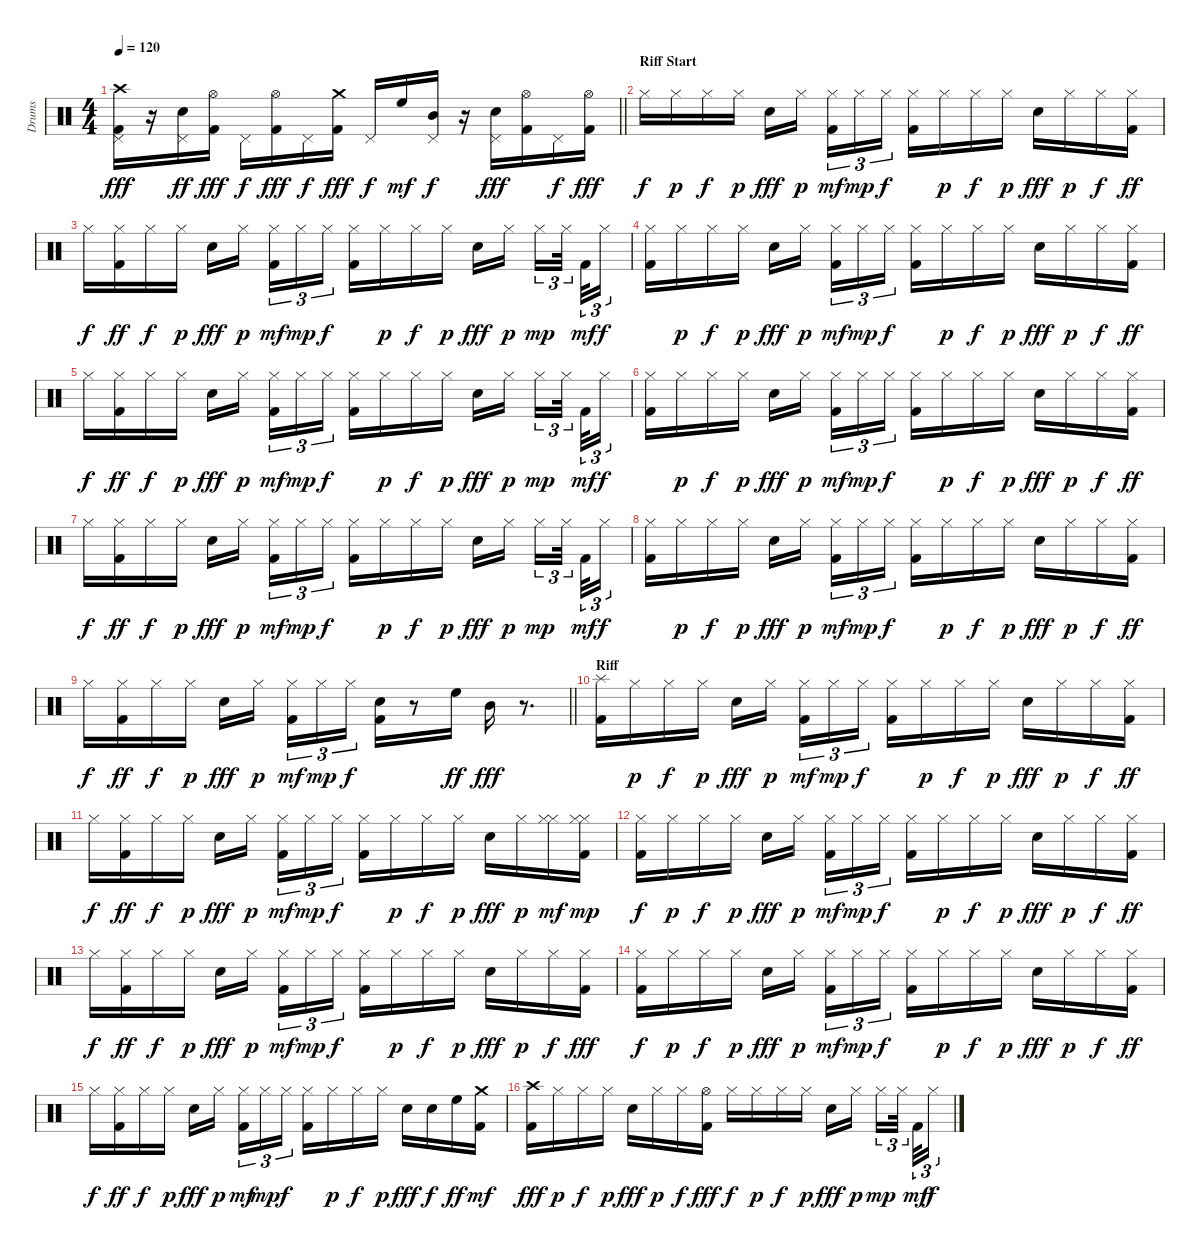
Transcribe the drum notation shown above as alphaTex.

\track ("Drums" "Drums") {instrument percussion}
\staff {score}
\articulation defaults
\ts (4 4)
\tempo 120
\clef neutral
\barLineRight lightlight
\ks c
("Crash high (hit)" "Kick (hit) 2" "Pedal Hi-Hat (hit)").16{dy fff} r.16 ("Snare (hit) 2" "Pedal Hi-Hat (hit)").16{dy ff} ("Kick (hit) 2" "Hi-Hat (open)").16{dy fff} "Pedal Hi-Hat (hit)".16{dy f} ("Kick (hit) 2" "Hi-Hat (open)").16{dy fff} "Pedal Hi-Hat (hit)".16{dy f} ("Kick (hit) 2" "Crash medium (hit)").16{dy fff} "Pedal Hi-Hat (hit)".16{dy f} "High Floor Tom (hit)".16{dy mf} ("Pedal Hi-Hat (hit)" "Mid Tom (hit)").16{dy f} r.16 ("Pedal Hi-Hat (hit)" "Snare (hit) 2").16{dy fff} ("Kick (hit) 2" "Hi-Hat (open)").16 "Pedal Hi-Hat (hit)".16{dy f} ("Kick (hit) 2" "Hi-Hat (open)").16{dy fff} |
\section ("" "Riff Start")
"Hi-Hat (closed)".16{dy f} "Hi-Hat (closed)".16{dy p} "Hi-Hat (closed)".16{dy f} "Hi-Hat (closed)".16{dy p} "Snare (hit) 2".16{dy fff} "Hi-Hat (closed)".16{dy p beam splitsecondary} ("Hi-Hat (closed)" "Kick (hit) 2").16{tu (3 2) dy mf} "Hi-Hat (closed)".16{tu (3 2) dy mp} "Hi-Hat (closed)".16{tu (3 2) dy f} ("Hi-Hat (closed)" "Kick (hit) 2").16 "Hi-Hat (closed)".16{dy p} "Hi-Hat (closed)".16{dy f} "Hi-Hat (closed)".16{dy p} "Snare (hit) 2".16{dy fff} "Hi-Hat (closed)".16{dy p} "Hi-Hat (closed)".16{dy f} ("Hi-Hat (closed)" "Kick (hit) 2").16{dy ff} |
"Hi-Hat (closed)".16{dy f} ("Hi-Hat (closed)" "Kick (hit) 2").16{dy ff} "Hi-Hat (closed)".16{dy f} "Hi-Hat (closed)".16{dy p} "Snare (hit) 2".16{dy fff} "Hi-Hat (closed)".16{dy p beam splitsecondary} ("Hi-Hat (closed)" "Kick (hit) 2").16{tu (3 2) dy mf} "Hi-Hat (closed)".16{tu (3 2) dy mp} "Hi-Hat (closed)".16{tu (3 2) dy f} ("Hi-Hat (closed)" "Kick (hit) 2").16 "Hi-Hat (closed)".16{dy p} "Hi-Hat (closed)".16{dy f} "Hi-Hat (closed)".16{dy p} "Snare (hit) 2".16{dy fff} "Hi-Hat (closed)".16{dy p beam splitsecondary} "Hi-Hat (closed)".16{tu (3 2) dy mp} "Hi-Hat (closed)".32{tu (3 2) beam splitsecondary} "Kick (hit) 2".32{tu (3 2) dy mf} "Hi-Hat (closed)".16{tu (3 2) dy f} |
("Hi-Hat (closed)" "Kick (hit) 2").16 "Hi-Hat (closed)".16{dy p} "Hi-Hat (closed)".16{dy f} "Hi-Hat (closed)".16{dy p} "Snare (hit) 2".16{dy fff} "Hi-Hat (closed)".16{dy p beam splitsecondary} ("Hi-Hat (closed)" "Kick (hit) 2").16{tu (3 2) dy mf} "Hi-Hat (closed)".16{tu (3 2) dy mp} "Hi-Hat (closed)".16{tu (3 2) dy f} ("Hi-Hat (closed)" "Kick (hit) 2").16 "Hi-Hat (closed)".16{dy p} "Hi-Hat (closed)".16{dy f} "Hi-Hat (closed)".16{dy p} "Snare (hit) 2".16{dy fff} "Hi-Hat (closed)".16{dy p} "Hi-Hat (closed)".16{dy f} ("Hi-Hat (closed)" "Kick (hit) 2").16{dy ff} |
"Hi-Hat (closed)".16{dy f} ("Hi-Hat (closed)" "Kick (hit) 2").16{dy ff} "Hi-Hat (closed)".16{dy f} "Hi-Hat (closed)".16{dy p} "Snare (hit) 2".16{dy fff} "Hi-Hat (closed)".16{dy p beam splitsecondary} ("Hi-Hat (closed)" "Kick (hit) 2").16{tu (3 2) dy mf} "Hi-Hat (closed)".16{tu (3 2) dy mp} "Hi-Hat (closed)".16{tu (3 2) dy f} ("Hi-Hat (closed)" "Kick (hit) 2").16 "Hi-Hat (closed)".16{dy p} "Hi-Hat (closed)".16{dy f} "Hi-Hat (closed)".16{dy p} "Snare (hit) 2".16{dy fff} "Hi-Hat (closed)".16{dy p beam splitsecondary} "Hi-Hat (closed)".16{tu (3 2) dy mp} "Hi-Hat (closed)".32{tu (3 2) beam splitsecondary} "Kick (hit) 2".32{tu (3 2) dy mf} "Hi-Hat (closed)".16{tu (3 2) dy f} |
("Hi-Hat (closed)" "Kick (hit) 2").16 "Hi-Hat (closed)".16{dy p} "Hi-Hat (closed)".16{dy f} "Hi-Hat (closed)".16{dy p} "Snare (hit) 2".16{dy fff} "Hi-Hat (closed)".16{dy p beam splitsecondary} ("Hi-Hat (closed)" "Kick (hit) 2").16{tu (3 2) dy mf} "Hi-Hat (closed)".16{tu (3 2) dy mp} "Hi-Hat (closed)".16{tu (3 2) dy f} ("Hi-Hat (closed)" "Kick (hit) 2").16 "Hi-Hat (closed)".16{dy p} "Hi-Hat (closed)".16{dy f} "Hi-Hat (closed)".16{dy p} "Snare (hit) 2".16{dy fff} "Hi-Hat (closed)".16{dy p} "Hi-Hat (closed)".16{dy f} ("Hi-Hat (closed)" "Kick (hit) 2").16{dy ff} |
"Hi-Hat (closed)".16{dy f} ("Hi-Hat (closed)" "Kick (hit) 2").16{dy ff} "Hi-Hat (closed)".16{dy f} "Hi-Hat (closed)".16{dy p} "Snare (hit) 2".16{dy fff} "Hi-Hat (closed)".16{dy p beam splitsecondary} ("Hi-Hat (closed)" "Kick (hit) 2").16{tu (3 2) dy mf} "Hi-Hat (closed)".16{tu (3 2) dy mp} "Hi-Hat (closed)".16{tu (3 2) dy f} ("Hi-Hat (closed)" "Kick (hit) 2").16 "Hi-Hat (closed)".16{dy p} "Hi-Hat (closed)".16{dy f} "Hi-Hat (closed)".16{dy p} "Snare (hit) 2".16{dy fff} "Hi-Hat (closed)".16{dy p beam splitsecondary} "Hi-Hat (closed)".16{tu (3 2) dy mp} "Hi-Hat (closed)".32{tu (3 2) beam splitsecondary} "Kick (hit) 2".32{tu (3 2) dy mf} "Hi-Hat (closed)".16{tu (3 2) dy f} |
("Hi-Hat (closed)" "Kick (hit) 2").16 "Hi-Hat (closed)".16{dy p} "Hi-Hat (closed)".16{dy f} "Hi-Hat (closed)".16{dy p} "Snare (hit) 2".16{dy fff} "Hi-Hat (closed)".16{dy p beam splitsecondary} ("Hi-Hat (closed)" "Kick (hit) 2").16{tu (3 2) dy mf} "Hi-Hat (closed)".16{tu (3 2) dy mp} "Hi-Hat (closed)".16{tu (3 2) dy f} ("Hi-Hat (closed)" "Kick (hit) 2").16 "Hi-Hat (closed)".16{dy p} "Hi-Hat (closed)".16{dy f} "Hi-Hat (closed)".16{dy p} "Snare (hit) 2".16{dy fff} "Hi-Hat (closed)".16{dy p} "Hi-Hat (closed)".16{dy f} ("Hi-Hat (closed)" "Kick (hit) 2").16{dy ff} |
\barLineRight lightlight "Hi-Hat (closed)".16{dy f}
("Hi-Hat (closed)" "Kick (hit) 2").16{dy ff} "Hi-Hat (closed)".16{dy f} "Hi-Hat (closed)".16{dy p} "Snare (hit) 2".16{dy fff} "Hi-Hat (closed)".16{dy p beam splitsecondary} ("Hi-Hat (closed)" "Kick (hit) 2").16{tu (3 2) dy mf} "Hi-Hat (closed)".16{tu (3 2) dy mp} "Hi-Hat (closed)".16{tu (3 2) dy f} ("Snare (hit) 2" "Kick (hit) 2").16 r.8 "High Floor Tom (hit)".16{dy ff} "Mid Tom (hit)".16{dy fff} r.8{d} |
\section ("" "Riff")
("Kick (hit) 2" "Splash (hit)").16 "Hi-Hat (closed)".16{dy p} "Hi-Hat (closed)".16{dy f} "Hi-Hat (closed)".16{dy p} "Snare (hit) 2".16{dy fff} "Hi-Hat (closed)".16{dy p beam splitsecondary} ("Hi-Hat (closed)" "Kick (hit) 2").16{tu (3 2) dy mf} "Hi-Hat (closed)".16{tu (3 2) dy mp} "Hi-Hat (closed)".16{tu (3 2) dy f} ("Hi-Hat (closed)" "Kick (hit) 2").16 "Hi-Hat (closed)".16{dy p} "Hi-Hat (closed)".16{dy f} "Hi-Hat (closed)".16{dy p} "Snare (hit) 2".16{dy fff} "Hi-Hat (closed)".16{dy p} "Hi-Hat (closed)".16{dy f} ("Hi-Hat (closed)" "Kick (hit) 2").16{dy ff} |
"Hi-Hat (closed)".16{dy f} ("Hi-Hat (closed)" "Kick (hit) 2").16{dy ff} "Hi-Hat (closed)".16{dy f} "Hi-Hat (closed)".16{dy p} "Snare (hit) 2".16{dy fff} "Hi-Hat (closed)".16{dy p beam splitsecondary} ("Hi-Hat (closed)" "Kick (hit) 2").16{tu (3 2) dy mf} "Hi-Hat (closed)".16{tu (3 2) dy mp} "Hi-Hat (closed)".16{tu (3 2) dy f} ("Hi-Hat (closed)" "Kick (hit) 2").16 "Hi-Hat (closed)".16{dy p} "Hi-Hat (closed)".16{dy f} "Hi-Hat (closed)".16{dy p} "Snare (hit) 2".16{dy fff} "Hi-Hat (closed)".16{dy p} ("Hi-Hat (closed)" "Hi-Hat (closed)").16{dy mf} ("Kick (hit) 2" "Hi-Hat (closed)" "Hi-Hat (closed)").16{dy mp} |
("Hi-Hat (closed)" "Kick (hit) 2").16{dy f} "Hi-Hat (closed)".16{dy p} "Hi-Hat (closed)".16{dy f} "Hi-Hat (closed)".16{dy p} "Snare (hit) 2".16{dy fff} "Hi-Hat (closed)".16{dy p beam splitsecondary} ("Hi-Hat (closed)" "Kick (hit) 2").16{tu (3 2) dy mf} "Hi-Hat (closed)".16{tu (3 2) dy mp} "Hi-Hat (closed)".16{tu (3 2) dy f} ("Hi-Hat (closed)" "Kick (hit) 2").16 "Hi-Hat (closed)".16{dy p} "Hi-Hat (closed)".16{dy f} "Hi-Hat (closed)".16{dy p} "Snare (hit) 2".16{dy fff} "Hi-Hat (closed)".16{dy p} "Hi-Hat (closed)".16{dy f} ("Hi-Hat (closed)" "Kick (hit) 2").16{dy ff} |
"Hi-Hat (closed)".16{dy f} ("Hi-Hat (closed)" "Kick (hit) 2").16{dy ff} "Hi-Hat (closed)".16{dy f} "Hi-Hat (closed)".16{dy p} "Snare (hit) 2".16{dy fff} "Hi-Hat (closed)".16{dy p beam splitsecondary} ("Hi-Hat (closed)" "Kick (hit) 2").16{tu (3 2) dy mf} "Hi-Hat (closed)".16{tu (3 2) dy mp} "Hi-Hat (closed)".16{tu (3 2) dy f} ("Hi-Hat (closed)" "Kick (hit) 2").16 "Hi-Hat (closed)".16{dy p} "Hi-Hat (closed)".16{dy f} "Hi-Hat (closed)".16{dy p} "Snare (hit) 2".16{dy fff} "Hi-Hat (closed)".16{dy p} "Hi-Hat (closed)".16{dy f} ("Kick (hit) 2" "Hi-Hat (closed)").16{dy fff} |
("Hi-Hat (closed)" "Kick (hit) 2").16{dy f} "Hi-Hat (closed)".16{dy p} "Hi-Hat (closed)".16{dy f} "Hi-Hat (closed)".16{dy p} "Snare (hit) 2".16{dy fff} "Hi-Hat (closed)".16{dy p beam splitsecondary} ("Hi-Hat (closed)" "Kick (hit) 2").16{tu (3 2) dy mf} "Hi-Hat (closed)".16{tu (3 2) dy mp} "Hi-Hat (closed)".16{tu (3 2) dy f} ("Hi-Hat (closed)" "Kick (hit) 2").16 "Hi-Hat (closed)".16{dy p} "Hi-Hat (closed)".16{dy f} "Hi-Hat (closed)".16{dy p} "Snare (hit) 2".16{dy fff} "Hi-Hat (closed)".16{dy p} "Hi-Hat (closed)".16{dy f} ("Hi-Hat (closed)" "Kick (hit) 2").16{dy ff} |
"Hi-Hat (closed)".16{dy f} ("Hi-Hat (closed)" "Kick (hit) 2").16{dy ff} "Hi-Hat (closed)".16{dy f} "Hi-Hat (closed)".16{dy p} "Snare (hit) 2".16{dy fff} "Hi-Hat (closed)".16{dy p beam splitsecondary} ("Hi-Hat (closed)" "Kick (hit) 2").16{tu (3 2) dy mf} "Hi-Hat (closed)".16{tu (3 2) dy mp} "Hi-Hat (closed)".16{tu (3 2) dy f} ("Hi-Hat (closed)" "Kick (hit) 2").16 "Hi-Hat (closed)".16{dy p} "Hi-Hat (closed)".16{dy f} "Hi-Hat (closed)".16{dy p} "Snare (hit) 2".16{dy fff} "Snare (hit) 2".16{dy f} "High Floor Tom (hit)".16{dy ff} ("Kick (hit) 2" "Crash medium (hit)").16{dy mf} |
("Kick (hit) 2" "Crash high (hit)").16{dy fff} "Hi-Hat (closed)".16{dy p} "Hi-Hat (closed)".16{dy f} "Hi-Hat (closed)".16{dy p} "Snare (hit) 2".16{dy fff} "Hi-Hat (closed)".16{dy p} "Hi-Hat (closed)".16{dy f} ("Kick (hit) 2" "Hi-Hat (open)").16{dy fff} "Hi-Hat (closed)".16{dy f} "Hi-Hat (closed)".16{dy p} "Hi-Hat (closed)".16{dy f} "Hi-Hat (closed)".16{dy p} "Snare (hit) 2".16{dy fff} "Hi-Hat (closed)".16{dy p beam splitsecondary} "Hi-Hat (closed)".16{tu (3 2) dy mp} "Hi-Hat (closed)".32{tu (3 2) beam splitsecondary} "Kick (hit) 2".32{tu (3 2) dy mf} "Hi-Hat (closed)".16{tu (3 2) dy f}
